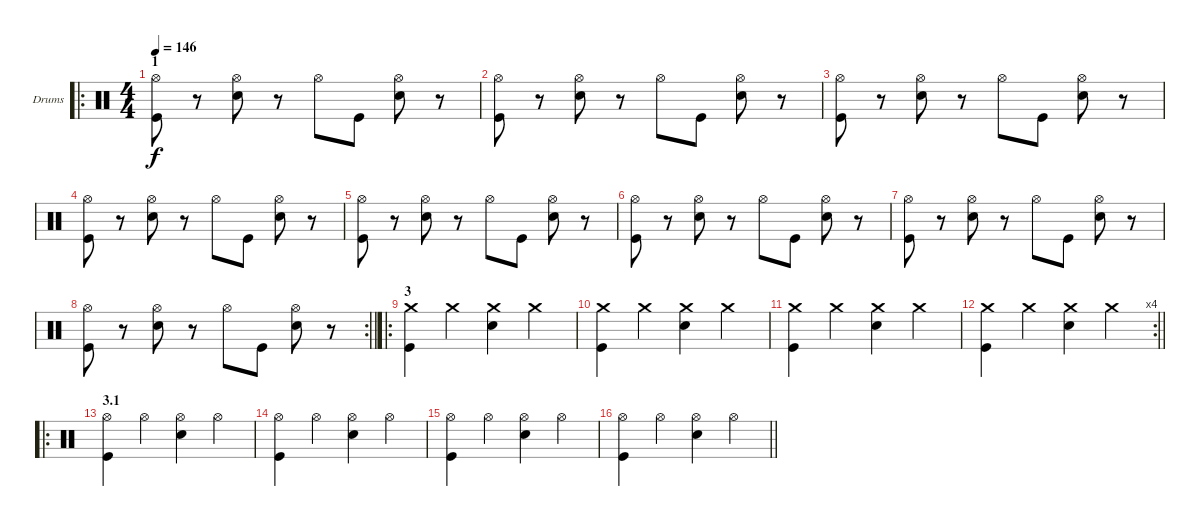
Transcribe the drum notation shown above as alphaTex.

\bracketExtendMode groupsimilarinstruments
\firstSystemTrackNameOrientation horizontal
\otherSystemsTrackNameOrientation horizontal
\track ("Drumkit" "Drums") {instrument percussion}
\staff {score}
\articulation defaults
\ro
\ts (4 4)
\section ("" "1")
\tempo 146
\clef neutral
\ks c
("Hi-Hat (open)" "Kick (hit)").8{dy f} r.8 ("Hi-Hat (open)" "Snare (hit) 2").8 r.8 "Hi-Hat (open)".8 "Kick (hit)".8 ("Hi-Hat (open)" "Snare (hit) 2").8 r.8 |
("Hi-Hat (open)" "Kick (hit)").8 r.8 ("Hi-Hat (open)" "Snare (hit) 2").8 r.8 "Hi-Hat (open)".8 "Kick (hit)".8 ("Hi-Hat (open)" "Snare (hit) 2").8 r.8 |
("Hi-Hat (open)" "Kick (hit)").8 r.8 ("Hi-Hat (open)" "Snare (hit) 2").8 r.8 "Hi-Hat (open)".8 "Kick (hit)".8 ("Hi-Hat (open)" "Snare (hit) 2").8 r.8 |
("Hi-Hat (open)" "Kick (hit)").8 r.8 ("Hi-Hat (open)" "Snare (hit) 2").8 r.8 "Hi-Hat (open)".8 "Kick (hit)".8 ("Hi-Hat (open)" "Snare (hit) 2").8 r.8 |
("Hi-Hat (open)" "Kick (hit)").8 r.8 ("Hi-Hat (open)" "Snare (hit) 2").8 r.8 "Hi-Hat (open)".8 "Kick (hit)".8 ("Hi-Hat (open)" "Snare (hit) 2").8 r.8 |
("Hi-Hat (open)" "Kick (hit)").8 r.8 ("Hi-Hat (open)" "Snare (hit) 2").8 r.8 "Hi-Hat (open)".8 "Kick (hit)".8 ("Hi-Hat (open)" "Snare (hit) 2").8 r.8 |
("Hi-Hat (open)" "Kick (hit)").8 r.8 ("Hi-Hat (open)" "Snare (hit) 2").8 r.8 "Hi-Hat (open)".8 "Kick (hit)".8 ("Hi-Hat (open)" "Snare (hit) 2").8 r.8 |
\rc 2
\barLineRight lightlight
("Hi-Hat (open)" "Kick (hit)").8 r.8 ("Hi-Hat (open)" "Snare (hit) 2").8 r.8 "Hi-Hat (open)".8 "Kick (hit)".8 ("Hi-Hat (open)" "Snare (hit) 2").8 r.8 |
\ro
\section ("" "3")
("Crash medium (hit)" "Kick (hit)").4 "Crash medium (hit)".4 ("Crash medium (hit)" "Snare (hit) 2").4 "Crash medium (hit)".4 |
("Crash medium (hit)" "Kick (hit)").4 "Crash medium (hit)".4 ("Crash medium (hit)" "Snare (hit) 2").4 "Crash medium (hit)".4 |
("Crash medium (hit)" "Kick (hit)").4 "Crash medium (hit)".4 ("Crash medium (hit)" "Snare (hit) 2").4 "Crash medium (hit)".4 |
\rc 4
\barLineRight lightlight
("Crash medium (hit)" "Kick (hit)").4 "Crash medium (hit)".4 ("Crash medium (hit)" "Snare (hit) 2").4 "Crash medium (hit)".4 |
\ro
\section ("" "3.1")
("Hi-Hat (open)" "Kick (hit)").4 "Hi-Hat (open)".4 ("Hi-Hat (open)" "Snare (hit) 2").4 "Hi-Hat (open)".4 |
("Hi-Hat (open)" "Kick (hit)").4 "Hi-Hat (open)".4 ("Hi-Hat (open)" "Snare (hit) 2").4 "Hi-Hat (open)".4 |
("Hi-Hat (open)" "Kick (hit)").4 "Hi-Hat (open)".4 ("Hi-Hat (open)" "Snare (hit) 2").4 "Hi-Hat (open)".4 |
\barLineRight lightlight
("Hi-Hat (open)" "Kick (hit)").4 "Hi-Hat (open)".4 ("Hi-Hat (open)" "Snare (hit) 2").4 "Hi-Hat (open)".4
